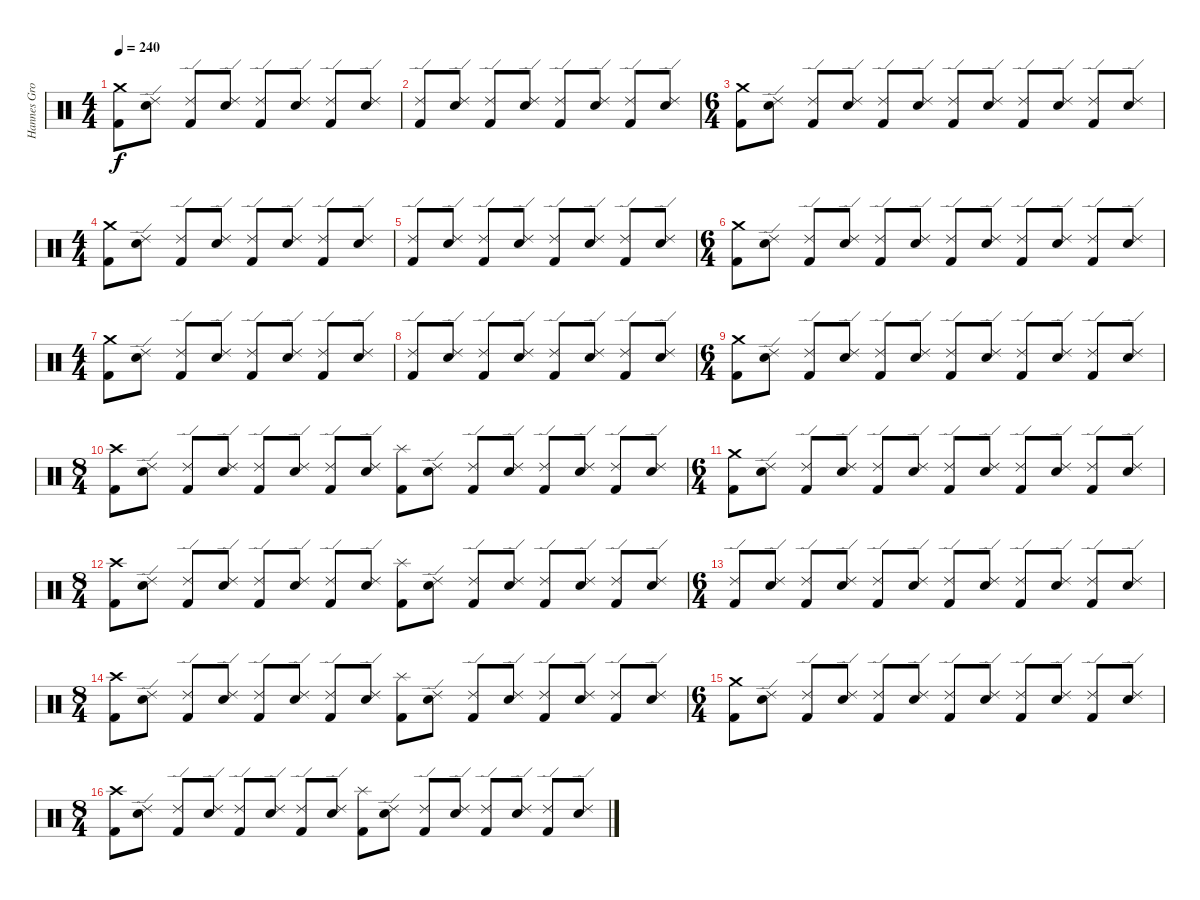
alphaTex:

\track ("Hannes Grossmann" "Hannes Gro") {instrument percussion}
\staff {score}
\articulation defaults
\ts (4 4)
\tempo 240
\clef neutral
\ks c
("Crash medium (hit)" "Kick (hit) 2").8{dy f} ("Ride (edge) 2" "Electric Snare (hit)").8 ("Ride (edge) 2" "Kick (hit) 2").8 ("Ride (edge) 2" "Electric Snare (hit)").8 ("Ride (edge) 2" "Kick (hit) 2").8 ("Ride (edge) 2" "Electric Snare (hit)").8 ("Ride (edge) 2" "Kick (hit) 2").8 ("Ride (edge) 2" "Electric Snare (hit)").8 |
("Ride (edge) 2" "Kick (hit) 2").8 ("Ride (edge) 2" "Electric Snare (hit)").8 ("Ride (edge) 2" "Kick (hit) 2").8 ("Ride (edge) 2" "Electric Snare (hit)").8 ("Ride (edge) 2" "Kick (hit) 2").8 ("Ride (edge) 2" "Electric Snare (hit)").8 ("Ride (edge) 2" "Kick (hit) 2").8 ("Ride (edge) 2" "Electric Snare (hit)").8 |
\ts (6 4)
("Crash medium (hit)" "Kick (hit) 2").8 ("Ride (edge) 2" "Electric Snare (hit)").8 ("Ride (edge) 2" "Kick (hit) 2").8 ("Ride (edge) 2" "Electric Snare (hit)").8 ("Ride (edge) 2" "Kick (hit) 2").8 ("Ride (edge) 2" "Electric Snare (hit)").8 ("Ride (edge) 2" "Kick (hit) 2").8 ("Ride (edge) 2" "Electric Snare (hit)").8 ("Ride (edge) 2" "Kick (hit) 2").8 ("Ride (edge) 2" "Electric Snare (hit)").8 ("Ride (edge) 2" "Kick (hit) 2").8 ("Ride (edge) 2" "Electric Snare (hit)").8 |
\ts (4 4)
("Crash medium (hit)" "Kick (hit) 2").8 ("Ride (edge) 2" "Electric Snare (hit)").8 ("Ride (edge) 2" "Kick (hit) 2").8 ("Ride (edge) 2" "Electric Snare (hit)").8 ("Ride (edge) 2" "Kick (hit) 2").8 ("Ride (edge) 2" "Electric Snare (hit)").8 ("Ride (edge) 2" "Kick (hit) 2").8 ("Ride (edge) 2" "Electric Snare (hit)").8 |
("Ride (edge) 2" "Kick (hit) 2").8 ("Ride (edge) 2" "Electric Snare (hit)").8 ("Ride (edge) 2" "Kick (hit) 2").8 ("Ride (edge) 2" "Electric Snare (hit)").8 ("Ride (edge) 2" "Kick (hit) 2").8 ("Ride (edge) 2" "Electric Snare (hit)").8 ("Ride (edge) 2" "Kick (hit) 2").8 ("Ride (edge) 2" "Electric Snare (hit)").8 |
\ts (6 4)
("Crash medium (hit)" "Kick (hit) 2").8 ("Ride (edge) 2" "Electric Snare (hit)").8 ("Ride (edge) 2" "Kick (hit) 2").8 ("Ride (edge) 2" "Electric Snare (hit)").8 ("Ride (edge) 2" "Kick (hit) 2").8 ("Ride (edge) 2" "Electric Snare (hit)").8 ("Ride (edge) 2" "Kick (hit) 2").8 ("Ride (edge) 2" "Electric Snare (hit)").8 ("Ride (edge) 2" "Kick (hit) 2").8 ("Ride (edge) 2" "Electric Snare (hit)").8 ("Ride (edge) 2" "Kick (hit) 2").8 ("Ride (edge) 2" "Electric Snare (hit)").8 |
\ts (4 4)
("Crash medium (hit)" "Kick (hit) 2").8 ("Ride (edge) 2" "Electric Snare (hit)").8 ("Ride (edge) 2" "Kick (hit) 2").8 ("Ride (edge) 2" "Electric Snare (hit)").8 ("Ride (edge) 2" "Kick (hit) 2").8 ("Ride (edge) 2" "Electric Snare (hit)").8 ("Ride (edge) 2" "Kick (hit) 2").8 ("Ride (edge) 2" "Electric Snare (hit)").8 |
("Ride (edge) 2" "Kick (hit) 2").8 ("Ride (edge) 2" "Electric Snare (hit)").8 ("Ride (edge) 2" "Kick (hit) 2").8 ("Ride (edge) 2" "Electric Snare (hit)").8 ("Ride (edge) 2" "Kick (hit) 2").8 ("Ride (edge) 2" "Electric Snare (hit)").8 ("Ride (edge) 2" "Kick (hit) 2").8 ("Ride (edge) 2" "Electric Snare (hit)").8 |
\ts (6 4)
("Crash medium (hit)" "Kick (hit) 2").8 ("Ride (edge) 2" "Electric Snare (hit)").8 ("Ride (edge) 2" "Kick (hit) 2").8 ("Ride (edge) 2" "Electric Snare (hit)").8 ("Ride (edge) 2" "Kick (hit) 2").8 ("Ride (edge) 2" "Electric Snare (hit)").8 ("Ride (edge) 2" "Kick (hit) 2").8 ("Ride (edge) 2" "Electric Snare (hit)").8 ("Ride (edge) 2" "Kick (hit) 2").8 ("Ride (edge) 2" "Electric Snare (hit)").8 ("Ride (edge) 2" "Kick (hit) 2").8 ("Ride (edge) 2" "Electric Snare (hit)").8 |
\ts (8 4)
("Crash high (hit)" "Kick (hit) 2").8 ("Ride (edge) 2" "Electric Snare (hit)").8 ("Ride (edge) 2" "Kick (hit) 2").8 ("Ride (edge) 2" "Electric Snare (hit)").8 ("Ride (edge) 2" "Kick (hit) 2").8 ("Ride (edge) 2" "Electric Snare (hit)").8 ("Ride (edge) 2" "Kick (hit) 2").8 ("Ride (edge) 2" "Electric Snare (hit)").8 ("Splash (hit)" "Kick (hit) 2").8 ("Ride (edge) 2" "Electric Snare (hit)").8 ("Ride (edge) 2" "Kick (hit) 2").8 ("Ride (edge) 2" "Electric Snare (hit)").8 ("Ride (edge) 2" "Kick (hit) 2").8 ("Ride (edge) 2" "Electric Snare (hit)").8 ("Ride (edge) 2" "Kick (hit) 2").8 ("Ride (edge) 2" "Electric Snare (hit)").8 |
\ts (6 4)
("Crash medium (hit)" "Kick (hit) 2").8 ("Ride (edge) 2" "Electric Snare (hit)").8 ("Ride (edge) 2" "Kick (hit) 2").8 ("Ride (edge) 2" "Electric Snare (hit)").8 ("Ride (edge) 2" "Kick (hit) 2").8 ("Ride (edge) 2" "Electric Snare (hit)").8 ("Ride (edge) 2" "Kick (hit) 2").8 ("Ride (edge) 2" "Electric Snare (hit)").8 ("Ride (edge) 2" "Kick (hit) 2").8 ("Ride (edge) 2" "Electric Snare (hit)").8 ("Ride (edge) 2" "Kick (hit) 2").8 ("Ride (edge) 2" "Electric Snare (hit)").8 |
\ts (8 4)
("Crash high (hit)" "Kick (hit) 2").8 ("Ride (edge) 2" "Electric Snare (hit)").8 ("Ride (edge) 2" "Kick (hit) 2").8 ("Ride (edge) 2" "Electric Snare (hit)").8 ("Ride (edge) 2" "Kick (hit) 2").8 ("Ride (edge) 2" "Electric Snare (hit)").8 ("Ride (edge) 2" "Kick (hit) 2").8 ("Ride (edge) 2" "Electric Snare (hit)").8 ("Splash (hit)" "Kick (hit) 2").8 ("Ride (edge) 2" "Electric Snare (hit)").8 ("Ride (edge) 2" "Kick (hit) 2").8 ("Ride (edge) 2" "Electric Snare (hit)").8 ("Ride (edge) 2" "Kick (hit) 2").8 ("Ride (edge) 2" "Electric Snare (hit)").8 ("Ride (edge) 2" "Kick (hit) 2").8 ("Ride (edge) 2" "Electric Snare (hit)").8 |
\ts (6 4)
("Ride (edge) 2" "Kick (hit) 2").8 ("Ride (edge) 2" "Electric Snare (hit)").8 ("Ride (edge) 2" "Kick (hit) 2").8 ("Ride (edge) 2" "Electric Snare (hit)").8 ("Ride (edge) 2" "Kick (hit) 2").8 ("Ride (edge) 2" "Electric Snare (hit)").8 ("Ride (edge) 2" "Kick (hit) 2").8 ("Ride (edge) 2" "Electric Snare (hit)").8 ("Ride (edge) 2" "Kick (hit) 2").8 ("Ride (edge) 2" "Electric Snare (hit)").8 ("Ride (edge) 2" "Kick (hit) 2").8 ("Ride (edge) 2" "Electric Snare (hit)").8 |
\ts (8 4)
("Crash high (hit)" "Kick (hit) 2").8 ("Ride (edge) 2" "Electric Snare (hit)").8 ("Ride (edge) 2" "Kick (hit) 2").8 ("Ride (edge) 2" "Electric Snare (hit)").8 ("Ride (edge) 2" "Kick (hit) 2").8 ("Ride (edge) 2" "Electric Snare (hit)").8 ("Ride (edge) 2" "Kick (hit) 2").8 ("Ride (edge) 2" "Electric Snare (hit)").8 ("Splash (hit)" "Kick (hit) 2").8 ("Ride (edge) 2" "Electric Snare (hit)").8 ("Ride (edge) 2" "Kick (hit) 2").8 ("Ride (edge) 2" "Electric Snare (hit)").8 ("Ride (edge) 2" "Kick (hit) 2").8 ("Ride (edge) 2" "Electric Snare (hit)").8 ("Ride (edge) 2" "Kick (hit) 2").8 ("Ride (edge) 2" "Electric Snare (hit)").8 |
\ts (6 4)
("Crash medium (hit)" "Kick (hit) 2").8 ("Ride (edge) 2" "Electric Snare (hit)").8 ("Ride (edge) 2" "Kick (hit) 2").8 ("Ride (edge) 2" "Electric Snare (hit)").8 ("Ride (edge) 2" "Kick (hit) 2").8 ("Ride (edge) 2" "Electric Snare (hit)").8 ("Ride (edge) 2" "Kick (hit) 2").8 ("Ride (edge) 2" "Electric Snare (hit)").8 ("Ride (edge) 2" "Kick (hit) 2").8 ("Ride (edge) 2" "Electric Snare (hit)").8 ("Ride (edge) 2" "Kick (hit) 2").8 ("Ride (edge) 2" "Electric Snare (hit)").8 |
\ts (8 4)
("Crash high (hit)" "Kick (hit) 2").8 ("Ride (edge) 2" "Electric Snare (hit)").8 ("Ride (edge) 2" "Kick (hit) 2").8 ("Ride (edge) 2" "Electric Snare (hit)").8 ("Ride (edge) 2" "Kick (hit) 2").8 ("Ride (edge) 2" "Electric Snare (hit)").8 ("Ride (edge) 2" "Kick (hit) 2").8 ("Ride (edge) 2" "Electric Snare (hit)").8 ("Splash (hit)" "Kick (hit) 2").8 ("Ride (edge) 2" "Electric Snare (hit)").8 ("Ride (edge) 2" "Kick (hit) 2").8 ("Ride (edge) 2" "Electric Snare (hit)").8 ("Ride (edge) 2" "Kick (hit) 2").8 ("Ride (edge) 2" "Electric Snare (hit)").8 ("Ride (edge) 2" "Kick (hit) 2").8 ("Ride (edge) 2" "Electric Snare (hit)").8
